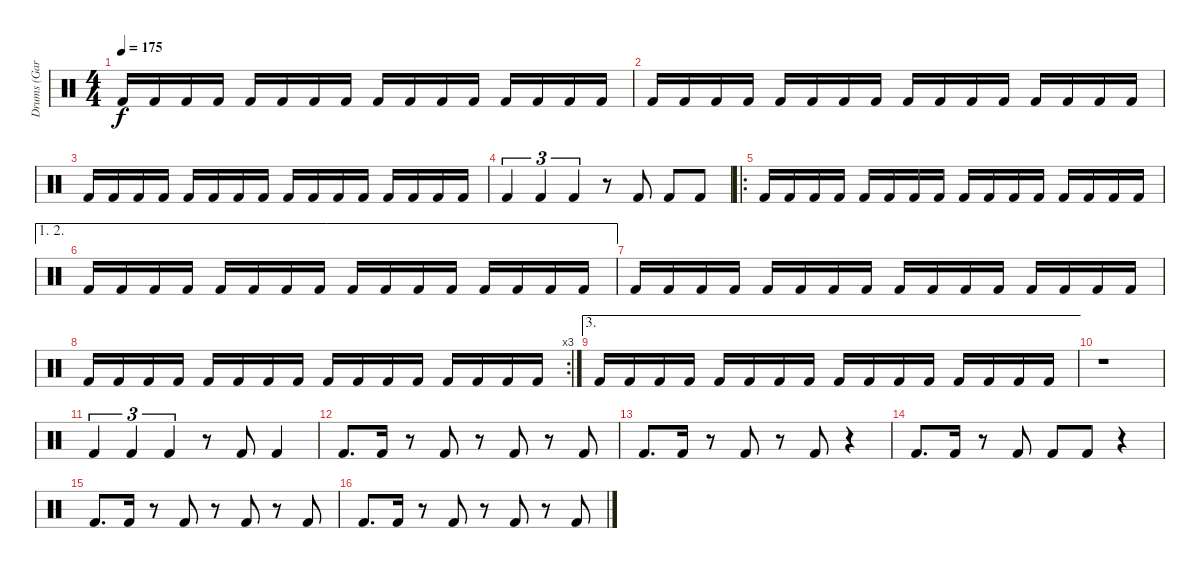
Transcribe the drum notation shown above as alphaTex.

\track ("Drums (Gar Samuelson)" "Drums (Gar") {instrument percussion}
\staff {score}
\articulation defaults
\ts (4 4)
\tempo 175
\clef neutral
\ks c "Kick (hit) 2".16{dy f} "Kick (hit) 2".16 "Kick (hit) 2".16 "Kick (hit) 2".16 "Kick (hit) 2".16 "Kick (hit) 2".16 "Kick (hit) 2".16 "Kick (hit) 2".16 "Kick (hit) 2".16 "Kick (hit) 2".16 "Kick (hit) 2".16 "Kick (hit) 2".16 "Kick (hit) 2".16 "Kick (hit) 2".16 "Kick (hit) 2".16 "Kick (hit) 2".16
|
"Kick (hit) 2".16 "Kick (hit) 2".16 "Kick (hit) 2".16 "Kick (hit) 2".16 "Kick (hit) 2".16 "Kick (hit) 2".16 "Kick (hit) 2".16 "Kick (hit) 2".16 "Kick (hit) 2".16 "Kick (hit) 2".16 "Kick (hit) 2".16 "Kick (hit) 2".16 "Kick (hit) 2".16 "Kick (hit) 2".16 "Kick (hit) 2".16 "Kick (hit) 2".16 |
"Kick (hit) 2".16 "Kick (hit) 2".16 "Kick (hit) 2".16 "Kick (hit) 2".16 "Kick (hit) 2".16 "Kick (hit) 2".16 "Kick (hit) 2".16 "Kick (hit) 2".16 "Kick (hit) 2".16 "Kick (hit) 2".16 "Kick (hit) 2".16 "Kick (hit) 2".16 "Kick (hit) 2".16 "Kick (hit) 2".16 "Kick (hit) 2".16 "Kick (hit) 2".16 |
"Kick (hit) 2".4{tu (3 2)} "Kick (hit) 2".4{tu (3 2)} "Kick (hit) 2".4{tu (3 2)} r.8 "Kick (hit) 2".8 "Kick (hit) 2".8 "Kick (hit) 2".8 |
\ro "Kick (hit) 2".16 "Kick (hit) 2".16 "Kick (hit) 2".16 "Kick (hit) 2".16 "Kick (hit) 2".16 "Kick (hit) 2".16 "Kick (hit) 2".16 "Kick (hit) 2".16 "Kick (hit) 2".16 "Kick (hit) 2".16 "Kick (hit) 2".16 "Kick (hit) 2".16 "Kick (hit) 2".16 "Kick (hit) 2".16 "Kick (hit) 2".16 "Kick (hit) 2".16
|
\ae (1 2)
"Kick (hit) 2".16 "Kick (hit) 2".16 "Kick (hit) 2".16 "Kick (hit) 2".16 "Kick (hit) 2".16 "Kick (hit) 2".16 "Kick (hit) 2".16 "Kick (hit) 2".16 "Kick (hit) 2".16 "Kick (hit) 2".16 "Kick (hit) 2".16 "Kick (hit) 2".16 "Kick (hit) 2".16 "Kick (hit) 2".16 "Kick (hit) 2".16 "Kick (hit) 2".16 |
"Kick (hit) 2".16 "Kick (hit) 2".16 "Kick (hit) 2".16 "Kick (hit) 2".16 "Kick (hit) 2".16 "Kick (hit) 2".16 "Kick (hit) 2".16 "Kick (hit) 2".16 "Kick (hit) 2".16 "Kick (hit) 2".16 "Kick (hit) 2".16 "Kick (hit) 2".16 "Kick (hit) 2".16 "Kick (hit) 2".16 "Kick (hit) 2".16 "Kick (hit) 2".16 |
\rc 3 "Kick (hit) 2".16 "Kick (hit) 2".16 "Kick (hit) 2".16 "Kick (hit) 2".16 "Kick (hit) 2".16 "Kick (hit) 2".16 "Kick (hit) 2".16 "Kick (hit) 2".16 "Kick (hit) 2".16 "Kick (hit) 2".16 "Kick (hit) 2".16 "Kick (hit) 2".16 "Kick (hit) 2".16 "Kick (hit) 2".16 "Kick (hit) 2".16 "Kick (hit) 2".16
|
\ae 3 "Kick (hit) 2".16 "Kick (hit) 2".16 "Kick (hit) 2".16 "Kick (hit) 2".16 "Kick (hit) 2".16 "Kick (hit) 2".16 "Kick (hit) 2".16 "Kick (hit) 2".16 "Kick (hit) 2".16 "Kick (hit) 2".16 "Kick (hit) 2".16 "Kick (hit) 2".16 "Kick (hit) 2".16 "Kick (hit) 2".16 "Kick (hit) 2".16 "Kick (hit) 2".16
|
r.1 |
"Kick (hit) 2".4{tu (3 2)} "Kick (hit) 2".4{tu (3 2)} "Kick (hit) 2".4{tu (3 2)} r.8 "Kick (hit) 2".8 "Kick (hit) 2".4 |
"Kick (hit) 2".8{d} "Kick (hit) 2".16 r.8 "Kick (hit) 2".8 r.8 "Kick (hit) 2".8 r.8 "Kick (hit) 2".8 |
"Kick (hit) 2".8{d} "Kick (hit) 2".16 r.8 "Kick (hit) 2".8 r.8 "Kick (hit) 2".8 r.4 |
"Kick (hit) 2".8{d} "Kick (hit) 2".16 r.8 "Kick (hit) 2".8 "Kick (hit) 2".8 "Kick (hit) 2".8 r.4 |
"Kick (hit) 2".8{d} "Kick (hit) 2".16 r.8 "Kick (hit) 2".8 r.8 "Kick (hit) 2".8 r.8 "Kick (hit) 2".8 |
"Kick (hit) 2".8{d} "Kick (hit) 2".16 r.8 "Kick (hit) 2".8 r.8 "Kick (hit) 2".8 r.8 "Kick (hit) 2".8
